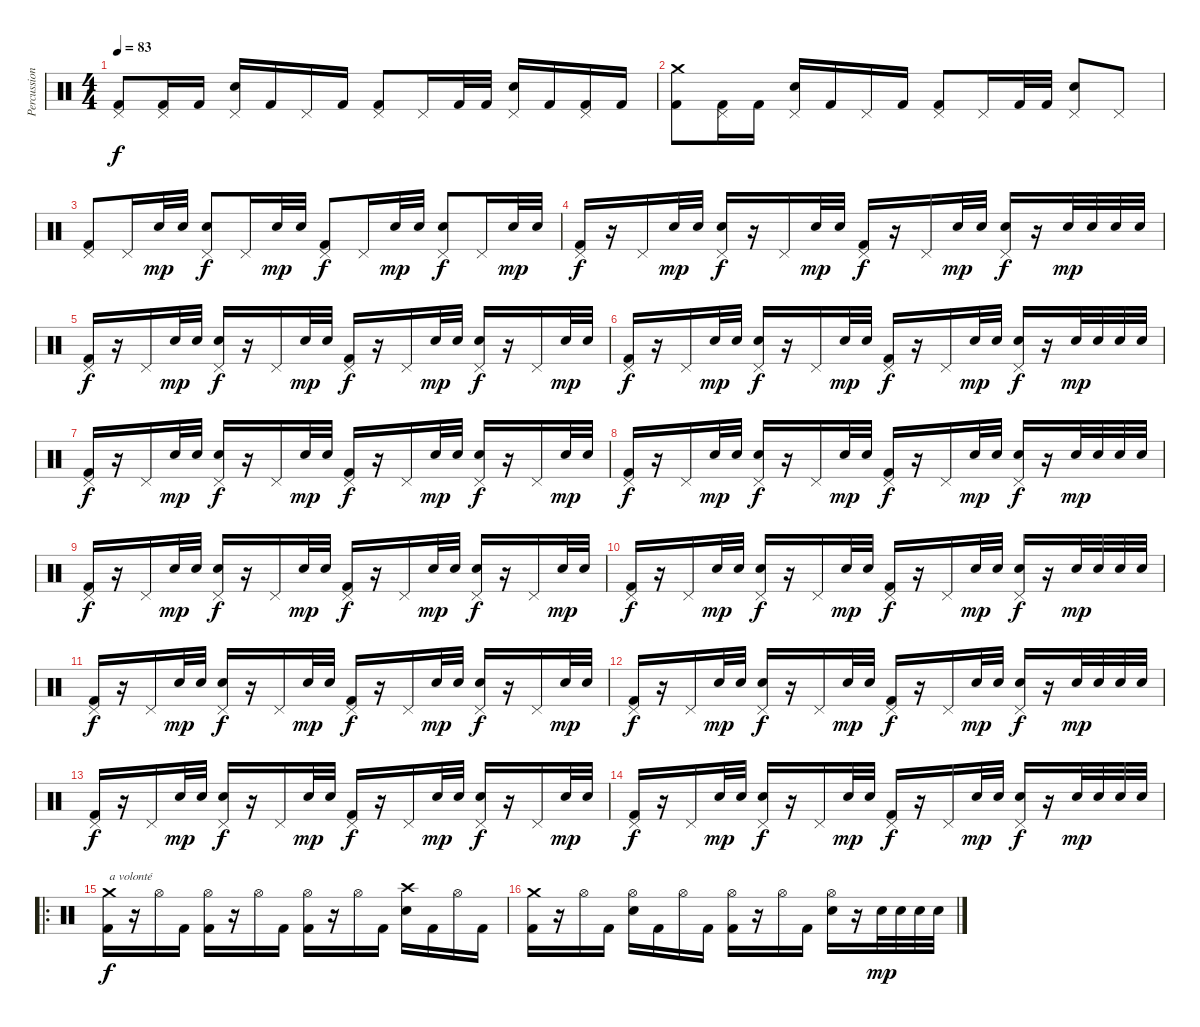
\track ("Percussions" "Percussion") {instrument percussion}
\staff {score}
\articulation defaults
\ts (4 4)
\tempo 83
\clef neutral
\ks c
("Pedal Hi-Hat (hit)" "Kick (hit) 2").8{dy f} ("Pedal Hi-Hat (hit)" "Kick (hit) 2").16 "Kick (hit) 2".16 ("Pedal Hi-Hat (hit)" "Electric Snare (hit)").16 "Kick (hit) 2".16 "Pedal Hi-Hat (hit)".16 "Kick (hit) 2".16 ("Pedal Hi-Hat (hit)" "Kick (hit) 2").8 "Pedal Hi-Hat (hit)".16 "Kick (hit) 2".32 "Kick (hit) 2".32 ("Pedal Hi-Hat (hit)" "Electric Snare (hit)").16 "Kick (hit) 2".16 ("Pedal Hi-Hat (hit)" "Kick (hit) 2").16 "Kick (hit) 2".16 |
("Crash medium (hit)" "Kick (hit) 2").8 ("Pedal Hi-Hat (hit)" "Kick (hit) 2").16 "Kick (hit) 2".16 ("Pedal Hi-Hat (hit)" "Electric Snare (hit)").16 "Kick (hit) 2".16 "Pedal Hi-Hat (hit)".16 "Kick (hit) 2".16 ("Pedal Hi-Hat (hit)" "Kick (hit) 2").8 "Pedal Hi-Hat (hit)".16 "Kick (hit) 2".32 "Kick (hit) 2".32 ("Pedal Hi-Hat (hit)" "Electric Snare (hit)").8 "Pedal Hi-Hat (hit)".8 |
("Pedal Hi-Hat (hit)" "Kick (hit) 2").8 "Pedal Hi-Hat (hit)".16 "Snare (hit) 2".32{dy mp} "Snare (hit) 2".32 ("Pedal Hi-Hat (hit)" "Electric Snare (hit)").8{dy f} "Pedal Hi-Hat (hit)".16 "Snare (hit) 2".32{dy mp} "Snare (hit) 2".32 ("Pedal Hi-Hat (hit)" "Kick (hit) 2").8{dy f} "Pedal Hi-Hat (hit)".16 "Snare (hit) 2".32{dy mp} "Snare (hit) 2".32 ("Pedal Hi-Hat (hit)" "Electric Snare (hit)").8{dy f} "Pedal Hi-Hat (hit)".16 "Snare (hit) 2".32{dy mp} "Snare (hit) 2".32 |
("Pedal Hi-Hat (hit)" "Kick (hit) 2").16{dy f} r.16 "Pedal Hi-Hat (hit)".16 "Snare (hit) 2".32{dy mp} "Snare (hit) 2".32 ("Pedal Hi-Hat (hit)" "Electric Snare (hit)").16{dy f} r.16 "Pedal Hi-Hat (hit)".16 "Snare (hit) 2".32{dy mp} "Snare (hit) 2".32 ("Pedal Hi-Hat (hit)" "Kick (hit) 2").16{dy f} r.16 "Pedal Hi-Hat (hit)".16 "Snare (hit) 2".32{dy mp} "Snare (hit) 2".32 ("Pedal Hi-Hat (hit)" "Electric Snare (hit)").16{dy f} r.16 "Snare (hit) 2".32{dy mp} "Snare (hit) 2".32 "Snare (hit) 2".32 "Snare (hit) 2".32 |
("Pedal Hi-Hat (hit)" "Kick (hit) 2").16{dy f} r.16 "Pedal Hi-Hat (hit)".16 "Snare (hit) 2".32{dy mp} "Snare (hit) 2".32 ("Pedal Hi-Hat (hit)" "Electric Snare (hit)").16{dy f} r.16 "Pedal Hi-Hat (hit)".16 "Snare (hit) 2".32{dy mp} "Snare (hit) 2".32 ("Pedal Hi-Hat (hit)" "Kick (hit) 2").16{dy f} r.16 "Pedal Hi-Hat (hit)".16 "Snare (hit) 2".32{dy mp} "Snare (hit) 2".32 ("Pedal Hi-Hat (hit)" "Electric Snare (hit)").16{dy f} r.16 "Pedal Hi-Hat (hit)".16 "Snare (hit) 2".32{dy mp} "Snare (hit) 2".32 |
("Pedal Hi-Hat (hit)" "Kick (hit) 2").16{dy f} r.16 "Pedal Hi-Hat (hit)".16 "Snare (hit) 2".32{dy mp} "Snare (hit) 2".32 ("Pedal Hi-Hat (hit)" "Electric Snare (hit)").16{dy f} r.16 "Pedal Hi-Hat (hit)".16 "Snare (hit) 2".32{dy mp} "Snare (hit) 2".32 ("Pedal Hi-Hat (hit)" "Kick (hit) 2").16{dy f} r.16 "Pedal Hi-Hat (hit)".16 "Snare (hit) 2".32{dy mp} "Snare (hit) 2".32 ("Pedal Hi-Hat (hit)" "Electric Snare (hit)").16{dy f} r.16 "Snare (hit) 2".32{dy mp} "Snare (hit) 2".32 "Snare (hit) 2".32 "Snare (hit) 2".32 |
("Pedal Hi-Hat (hit)" "Kick (hit) 2").16{dy f} r.16 "Pedal Hi-Hat (hit)".16 "Snare (hit) 2".32{dy mp} "Snare (hit) 2".32 ("Pedal Hi-Hat (hit)" "Electric Snare (hit)").16{dy f} r.16 "Pedal Hi-Hat (hit)".16 "Snare (hit) 2".32{dy mp} "Snare (hit) 2".32 ("Pedal Hi-Hat (hit)" "Kick (hit) 2").16{dy f} r.16 "Pedal Hi-Hat (hit)".16 "Snare (hit) 2".32{dy mp} "Snare (hit) 2".32 ("Pedal Hi-Hat (hit)" "Electric Snare (hit)").16{dy f} r.16 "Pedal Hi-Hat (hit)".16 "Snare (hit) 2".32{dy mp} "Snare (hit) 2".32 |
("Pedal Hi-Hat (hit)" "Kick (hit) 2").16{dy f} r.16 "Pedal Hi-Hat (hit)".16 "Snare (hit) 2".32{dy mp} "Snare (hit) 2".32 ("Pedal Hi-Hat (hit)" "Electric Snare (hit)").16{dy f} r.16 "Pedal Hi-Hat (hit)".16 "Snare (hit) 2".32{dy mp} "Snare (hit) 2".32 ("Pedal Hi-Hat (hit)" "Kick (hit) 2").16{dy f} r.16 "Pedal Hi-Hat (hit)".16 "Snare (hit) 2".32{dy mp} "Snare (hit) 2".32 ("Pedal Hi-Hat (hit)" "Electric Snare (hit)").16{dy f} r.16 "Snare (hit) 2".32{dy mp} "Snare (hit) 2".32 "Snare (hit) 2".32 "Snare (hit) 2".32 |
("Pedal Hi-Hat (hit)" "Kick (hit) 2").16{dy f} r.16 "Pedal Hi-Hat (hit)".16 "Snare (hit) 2".32{dy mp} "Snare (hit) 2".32 ("Pedal Hi-Hat (hit)" "Electric Snare (hit)").16{dy f} r.16 "Pedal Hi-Hat (hit)".16 "Snare (hit) 2".32{dy mp} "Snare (hit) 2".32 ("Pedal Hi-Hat (hit)" "Kick (hit) 2").16{dy f} r.16 "Pedal Hi-Hat (hit)".16 "Snare (hit) 2".32{dy mp} "Snare (hit) 2".32 ("Pedal Hi-Hat (hit)" "Electric Snare (hit)").16{dy f} r.16 "Pedal Hi-Hat (hit)".16 "Snare (hit) 2".32{dy mp} "Snare (hit) 2".32 |
("Pedal Hi-Hat (hit)" "Kick (hit) 2").16{dy f} r.16 "Pedal Hi-Hat (hit)".16 "Snare (hit) 2".32{dy mp} "Snare (hit) 2".32 ("Pedal Hi-Hat (hit)" "Electric Snare (hit)").16{dy f} r.16 "Pedal Hi-Hat (hit)".16 "Snare (hit) 2".32{dy mp} "Snare (hit) 2".32 ("Pedal Hi-Hat (hit)" "Kick (hit) 2").16{dy f} r.16 "Pedal Hi-Hat (hit)".16 "Snare (hit) 2".32{dy mp} "Snare (hit) 2".32 ("Pedal Hi-Hat (hit)" "Electric Snare (hit)").16{dy f} r.16 "Snare (hit) 2".32{dy mp} "Snare (hit) 2".32 "Snare (hit) 2".32 "Snare (hit) 2".32 |
("Pedal Hi-Hat (hit)" "Kick (hit) 2").16{dy f} r.16 "Pedal Hi-Hat (hit)".16 "Snare (hit) 2".32{dy mp} "Snare (hit) 2".32 ("Pedal Hi-Hat (hit)" "Electric Snare (hit)").16{dy f} r.16 "Pedal Hi-Hat (hit)".16 "Snare (hit) 2".32{dy mp} "Snare (hit) 2".32 ("Pedal Hi-Hat (hit)" "Kick (hit) 2").16{dy f} r.16 "Pedal Hi-Hat (hit)".16 "Snare (hit) 2".32{dy mp} "Snare (hit) 2".32 ("Pedal Hi-Hat (hit)" "Electric Snare (hit)").16{dy f} r.16 "Pedal Hi-Hat (hit)".16 "Snare (hit) 2".32{dy mp} "Snare (hit) 2".32 |
("Pedal Hi-Hat (hit)" "Kick (hit) 2").16{dy f} r.16 "Pedal Hi-Hat (hit)".16 "Snare (hit) 2".32{dy mp} "Snare (hit) 2".32 ("Pedal Hi-Hat (hit)" "Electric Snare (hit)").16{dy f} r.16 "Pedal Hi-Hat (hit)".16 "Snare (hit) 2".32{dy mp} "Snare (hit) 2".32 ("Pedal Hi-Hat (hit)" "Kick (hit) 2").16{dy f} r.16 "Pedal Hi-Hat (hit)".16 "Snare (hit) 2".32{dy mp} "Snare (hit) 2".32 ("Pedal Hi-Hat (hit)" "Electric Snare (hit)").16{dy f} r.16 "Snare (hit) 2".32{dy mp} "Snare (hit) 2".32 "Snare (hit) 2".32 "Snare (hit) 2".32 |
("Pedal Hi-Hat (hit)" "Kick (hit) 2").16{dy f} r.16 "Pedal Hi-Hat (hit)".16 "Snare (hit) 2".32{dy mp} "Snare (hit) 2".32 ("Pedal Hi-Hat (hit)" "Electric Snare (hit)").16{dy f} r.16 "Pedal Hi-Hat (hit)".16 "Snare (hit) 2".32{dy mp} "Snare (hit) 2".32 ("Pedal Hi-Hat (hit)" "Kick (hit) 2").16{dy f} r.16 "Pedal Hi-Hat (hit)".16 "Snare (hit) 2".32{dy mp} "Snare (hit) 2".32 ("Pedal Hi-Hat (hit)" "Electric Snare (hit)").16{dy f} r.16 "Pedal Hi-Hat (hit)".16 "Snare (hit) 2".32{dy mp} "Snare (hit) 2".32 |
("Pedal Hi-Hat (hit)" "Kick (hit) 2").16{dy f} r.16 "Pedal Hi-Hat (hit)".16 "Snare (hit) 2".32{dy mp} "Snare (hit) 2".32 ("Pedal Hi-Hat (hit)" "Electric Snare (hit)").16{dy f} r.16 "Pedal Hi-Hat (hit)".16 "Snare (hit) 2".32{dy mp} "Snare (hit) 2".32 ("Pedal Hi-Hat (hit)" "Kick (hit) 2").16{dy f} r.16 "Pedal Hi-Hat (hit)".16 "Snare (hit) 2".32{dy mp} "Snare (hit) 2".32 ("Pedal Hi-Hat (hit)" "Electric Snare (hit)").16{dy f} r.16 "Snare (hit) 2".32{dy mp} "Snare (hit) 2".32 "Snare (hit) 2".32 "Snare (hit) 2".32 |
\ro
("Crash medium (hit)" "Kick (hit) 2").16{txt "a volonté" dy f} r.16 "Hi-Hat (open)".16 "Kick (hit) 2".16 ("Hi-Hat (open)" "Kick (hit) 2").16 r.16 "Hi-Hat (open)".16 "Kick (hit) 2".16 ("Hi-Hat (open)" "Kick (hit) 2").16 r.16 "Hi-Hat (open)".16 "Kick (hit) 2".16 ("Crash high (hit)" "Electric Snare (hit)").16 "Kick (hit) 2".16 "Hi-Hat (open)".16 "Kick (hit) 2".16 |
("Crash medium (hit)" "Kick (hit) 2").16 r.16 "Hi-Hat (open)".16 "Kick (hit) 2".16 ("Hi-Hat (open)" "Electric Snare (hit)").16 "Kick (hit) 2".16 "Hi-Hat (open)".16 "Kick (hit) 2".16 ("Hi-Hat (open)" "Kick (hit) 2").16 r.16 "Hi-Hat (open)".16 "Kick (hit) 2".16 ("Hi-Hat (open)" "Electric Snare (hit)").16 r.16 "Snare (hit) 2".32{dy mp} "Snare (hit) 2".32 "Snare (hit) 2".32 "Snare (hit) 2".32
